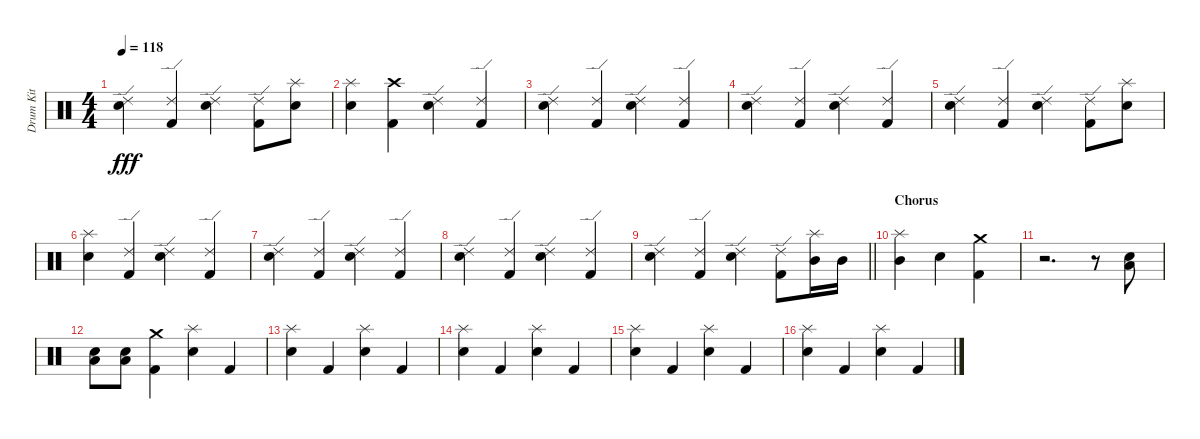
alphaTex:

\track ("Drum Kit" "Drum Kit") {instrument percussion}
\staff {score}
\articulation defaults
\ts (4 4)
\tempo 118
\clef neutral
\ks c
("Ride (edge) 2" "Electric Snare (hit)").4{dy fff} ("Ride (edge) 2" "Kick (hit) 2").4 ("Ride (edge) 2" "Electric Snare (hit)").4 ("Ride (edge) 2" "Kick (hit) 2").8 ("Splash (hit)" "Electric Snare (hit)").8 |
("Electric Snare (hit)" "Splash (hit)").4 ("Kick (hit) 2" "Crash high (hit)").4 ("Electric Snare (hit)" "Ride (edge) 2").4 ("Ride (edge) 2" "Kick (hit) 2").4 |
("Ride (edge) 2" "Electric Snare (hit)").4 ("Kick (hit) 2" "Ride (edge) 2").4 ("Electric Snare (hit)" "Ride (edge) 2").4 ("Ride (edge) 2" "Kick (hit) 2").4 |
("Electric Snare (hit)" "Ride (edge) 2").4 ("Kick (hit) 2" "Ride (edge) 2").4 ("Electric Snare (hit)" "Ride (edge) 2").4 ("Ride (edge) 2" "Kick (hit) 2").4 |
("Electric Snare (hit)" "Ride (edge) 2").4 ("Kick (hit) 2" "Ride (edge) 2").4 ("Electric Snare (hit)" "Ride (edge) 2").4 ("Ride (edge) 2" "Kick (hit) 2").8 ("Splash (hit)" "Electric Snare (hit)").8 |
("Splash (hit)" "Electric Snare (hit)").4 ("Kick (hit) 2" "Ride (edge) 2").4 ("Electric Snare (hit)" "Ride (edge) 2").4 ("Ride (edge) 2" "Kick (hit) 2").4 |
("Electric Snare (hit)" "Ride (edge) 2").4 ("Kick (hit) 2" "Ride (edge) 2").4 ("Electric Snare (hit)" "Ride (edge) 2").4 ("Ride (edge) 2" "Kick (hit) 2").4 |
("Electric Snare (hit)" "Ride (edge) 2").4 ("Ride (edge) 2" "Kick (hit) 2").4 ("Ride (edge) 2" "Electric Snare (hit)").4 ("Kick (hit) 2" "Ride (edge) 2").4 |
\barLineRight lightlight
("Electric Snare (hit)" "Ride (edge) 2").4 ("Kick (hit) 2" "Ride (edge) 2").4 ("Electric Snare (hit)" "Ride (edge) 2").4 ("Ride (edge) 2" "Kick (hit) 2").8 ("Mid Tom (hit)" "Splash (hit)").16 "Mid Tom (hit)".16 |
\section ("" "Chorus")
("Mid Tom (hit)" "Splash (hit)").4 "Electric Snare (hit)".4 ("Crash medium (hit)" "Kick (hit) 2").4 |
r.2{d} r.8 ("Low Floor Tom (hit)" "Electric Snare (hit)").8 |
("Low Floor Tom (hit)" "Electric Snare (hit)").8 ("Low Floor Tom (hit)" "Electric Snare (hit)").8 ("Kick (hit) 2" "Crash medium (hit)").4 ("Splash (hit)" "Electric Snare (hit)").4 "Kick (hit) 2".4 |
("Splash (hit)" "Electric Snare (hit)").4 "Kick (hit) 2".4 ("Splash (hit)" "Electric Snare (hit)").4 "Kick (hit) 2".4 |
("Splash (hit)" "Electric Snare (hit)").4 "Kick (hit) 2".4 ("Splash (hit)" "Electric Snare (hit)").4 "Kick (hit) 2".4 |
("Splash (hit)" "Electric Snare (hit)").4 "Kick (hit) 2".4 ("Splash (hit)" "Electric Snare (hit)").4 "Kick (hit) 2".4 |
("Electric Snare (hit)" "Splash (hit)").4 "Kick (hit) 2".4 ("Electric Snare (hit)" "Splash (hit)").4 "Kick (hit) 2".4
